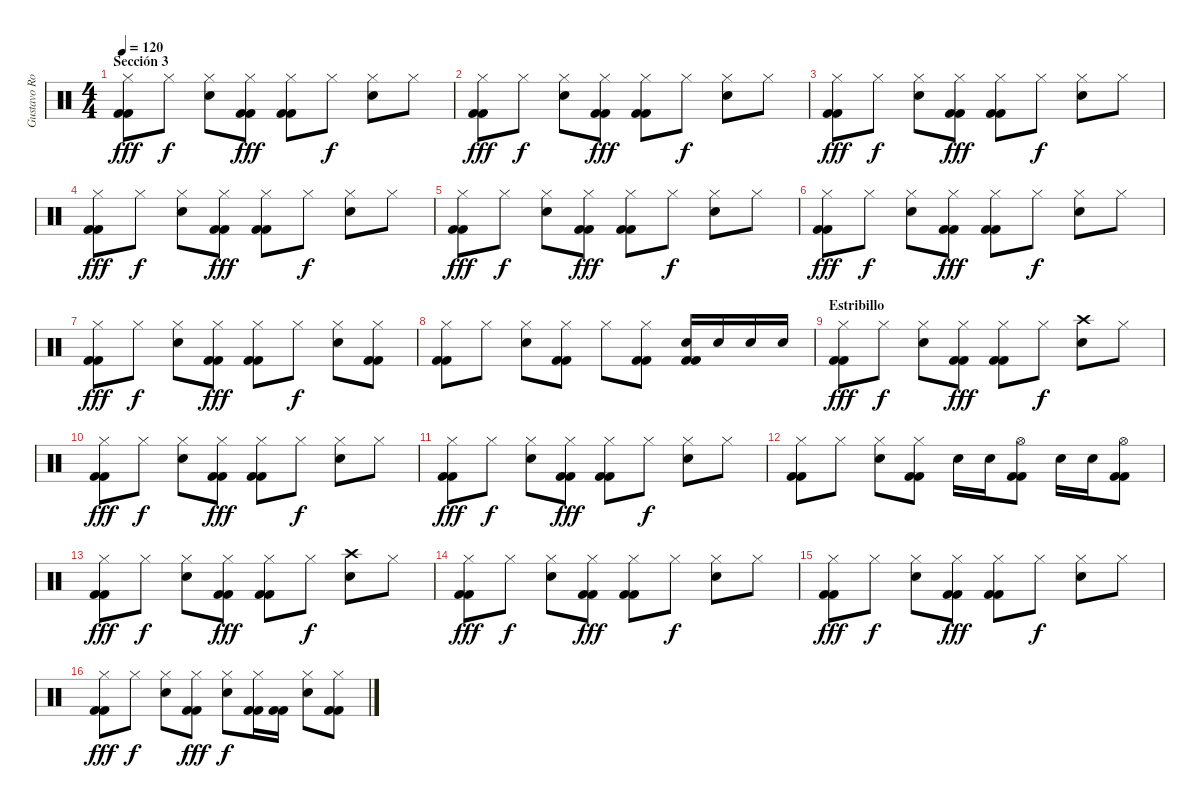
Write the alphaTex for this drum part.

\track ("Gustavo Rowek" "Gustavo Ro") {instrument percussion}
\staff {score}
\articulation defaults
\ts (4 4)
\section ("" "Sección 3")
\tempo 120
\clef neutral
\ks c
("Kick (hit) 2" "Kick (hit) 2" "Hi-Hat (closed)").8{dy fff} "Hi-Hat (closed)".8{dy f} ("Snare (hit) 2" "Hi-Hat (closed)").8 ("Kick (hit) 2" "Kick (hit) 2" "Hi-Hat (closed)").8{dy fff} ("Kick (hit) 2" "Kick (hit) 2" "Hi-Hat (closed)").8 "Hi-Hat (closed)".8{dy f} ("Snare (hit) 2" "Hi-Hat (closed)").8 "Hi-Hat (closed)".8 |
("Kick (hit) 2" "Kick (hit) 2" "Hi-Hat (closed)").8{dy fff} "Hi-Hat (closed)".8{dy f} ("Snare (hit) 2" "Hi-Hat (closed)").8 ("Kick (hit) 2" "Kick (hit) 2" "Hi-Hat (closed)").8{dy fff} ("Kick (hit) 2" "Kick (hit) 2" "Hi-Hat (closed)").8 "Hi-Hat (closed)".8{dy f} ("Snare (hit) 2" "Hi-Hat (closed)").8 "Hi-Hat (closed)".8 |
("Kick (hit) 2" "Kick (hit) 2" "Hi-Hat (closed)").8{dy fff} "Hi-Hat (closed)".8{dy f} ("Snare (hit) 2" "Hi-Hat (closed)").8 ("Kick (hit) 2" "Kick (hit) 2" "Hi-Hat (closed)").8{dy fff} ("Kick (hit) 2" "Kick (hit) 2" "Hi-Hat (closed)").8 "Hi-Hat (closed)".8{dy f} ("Snare (hit) 2" "Hi-Hat (closed)").8 "Hi-Hat (closed)".8 |
("Kick (hit) 2" "Kick (hit) 2" "Hi-Hat (closed)").8{dy fff} "Hi-Hat (closed)".8{dy f} ("Snare (hit) 2" "Hi-Hat (closed)").8 ("Kick (hit) 2" "Kick (hit) 2" "Hi-Hat (closed)").8{dy fff} ("Kick (hit) 2" "Kick (hit) 2" "Hi-Hat (closed)").8 "Hi-Hat (closed)".8{dy f} ("Snare (hit) 2" "Hi-Hat (closed)").8 "Hi-Hat (closed)".8 |
("Kick (hit) 2" "Kick (hit) 2" "Hi-Hat (closed)").8{dy fff} "Hi-Hat (closed)".8{dy f} ("Snare (hit) 2" "Hi-Hat (closed)").8 ("Kick (hit) 2" "Kick (hit) 2" "Hi-Hat (closed)").8{dy fff} ("Kick (hit) 2" "Kick (hit) 2" "Hi-Hat (closed)").8 "Hi-Hat (closed)".8{dy f} ("Snare (hit) 2" "Hi-Hat (closed)").8 "Hi-Hat (closed)".8 |
("Kick (hit) 2" "Kick (hit) 2" "Hi-Hat (closed)").8{dy fff} "Hi-Hat (closed)".8{dy f} ("Snare (hit) 2" "Hi-Hat (closed)").8 ("Kick (hit) 2" "Kick (hit) 2" "Hi-Hat (closed)").8{dy fff} ("Kick (hit) 2" "Kick (hit) 2" "Hi-Hat (closed)").8 "Hi-Hat (closed)".8{dy f} ("Snare (hit) 2" "Hi-Hat (closed)").8 "Hi-Hat (closed)".8 |
("Kick (hit) 2" "Kick (hit) 2" "Hi-Hat (closed)").8{dy fff} "Hi-Hat (closed)".8{dy f} ("Snare (hit) 2" "Hi-Hat (closed)").8 ("Kick (hit) 2" "Kick (hit) 2" "Hi-Hat (closed)").8{dy fff} ("Kick (hit) 2" "Kick (hit) 2" "Hi-Hat (closed)").8 "Hi-Hat (closed)".8{dy f} ("Snare (hit) 2" "Hi-Hat (closed)").8 ("Kick (hit) 2" "Kick (hit) 2" "Hi-Hat (closed)").8 |
("Kick (hit) 2" "Kick (hit) 2" "Hi-Hat (closed)").8 "Hi-Hat (closed)".8 ("Snare (hit) 2" "Hi-Hat (closed)").8 ("Kick (hit) 2" "Kick (hit) 2" "Hi-Hat (closed)").8 "Hi-Hat (closed)".8 ("Kick (hit) 2" "Kick (hit) 2" "Hi-Hat (closed)").8 ("Kick (hit) 2" "Kick (hit) 2" "Snare (hit) 2").16 "Snare (hit) 2".16 "Snare (hit) 2".16 "Snare (hit) 2".16 |
\section ("" "Estribillo")
("Kick (hit) 2" "Kick (hit) 2" "Hi-Hat (closed)").8{dy fff} "Hi-Hat (closed)".8{dy f} ("Snare (hit) 2" "Hi-Hat (closed)").8 ("Kick (hit) 2" "Kick (hit) 2" "Hi-Hat (closed)").8{dy fff} ("Kick (hit) 2" "Kick (hit) 2" "Hi-Hat (closed)").8 "Hi-Hat (closed)".8{dy f} ("Snare (hit) 2" "Crash high (hit)").8 "Hi-Hat (closed)".8 |
("Kick (hit) 2" "Kick (hit) 2" "Hi-Hat (closed)").8{dy fff} "Hi-Hat (closed)".8{dy f} ("Snare (hit) 2" "Hi-Hat (closed)").8 ("Kick (hit) 2" "Kick (hit) 2" "Hi-Hat (closed)").8{dy fff} ("Kick (hit) 2" "Kick (hit) 2" "Hi-Hat (closed)").8 "Hi-Hat (closed)".8{dy f} ("Snare (hit) 2" "Hi-Hat (closed)").8 "Hi-Hat (closed)".8 |
("Kick (hit) 2" "Kick (hit) 2" "Hi-Hat (closed)").8{dy fff} "Hi-Hat (closed)".8{dy f} ("Snare (hit) 2" "Hi-Hat (closed)").8 ("Kick (hit) 2" "Kick (hit) 2" "Hi-Hat (closed)").8{dy fff} ("Kick (hit) 2" "Kick (hit) 2" "Hi-Hat (closed)").8 "Hi-Hat (closed)".8{dy f} ("Snare (hit) 2" "Hi-Hat (closed)").8 "Hi-Hat (closed)".8 |
("Kick (hit) 2" "Kick (hit) 2" "Hi-Hat (closed)").8 "Hi-Hat (closed)".8 ("Snare (hit) 2" "Hi-Hat (closed)").8 ("Kick (hit) 2" "Kick (hit) 2" "Hi-Hat (closed)").8 "Snare (hit) 2".16 "Snare (hit) 2".16 ("Kick (hit) 2" "Kick (hit) 2" "Hi-Hat (open)").8 "Snare (hit) 2".16 "Snare (hit) 2".16 ("Kick (hit) 2" "Kick (hit) 2" "Hi-Hat (open)").8 |
("Kick (hit) 2" "Kick (hit) 2" "Hi-Hat (closed)").8{dy fff} "Hi-Hat (closed)".8{dy f} ("Snare (hit) 2" "Hi-Hat (closed)").8 ("Kick (hit) 2" "Kick (hit) 2" "Hi-Hat (closed)").8{dy fff} ("Kick (hit) 2" "Kick (hit) 2" "Hi-Hat (closed)").8 "Hi-Hat (closed)".8{dy f} ("Snare (hit) 2" "Crash high (hit)").8 "Hi-Hat (closed)".8 |
("Kick (hit) 2" "Kick (hit) 2" "Hi-Hat (closed)").8{dy fff} "Hi-Hat (closed)".8{dy f} ("Snare (hit) 2" "Hi-Hat (closed)").8 ("Kick (hit) 2" "Kick (hit) 2" "Hi-Hat (closed)").8{dy fff} ("Kick (hit) 2" "Kick (hit) 2" "Hi-Hat (closed)").8 "Hi-Hat (closed)".8{dy f} ("Snare (hit) 2" "Hi-Hat (closed)").8 "Hi-Hat (closed)".8 |
("Kick (hit) 2" "Kick (hit) 2" "Hi-Hat (closed)").8{dy fff} "Hi-Hat (closed)".8{dy f} ("Snare (hit) 2" "Hi-Hat (closed)").8 ("Kick (hit) 2" "Kick (hit) 2" "Hi-Hat (closed)").8{dy fff} ("Kick (hit) 2" "Kick (hit) 2" "Hi-Hat (closed)").8 "Hi-Hat (closed)".8{dy f} ("Snare (hit) 2" "Hi-Hat (closed)").8 "Hi-Hat (closed)".8 |
("Kick (hit) 2" "Kick (hit) 2" "Hi-Hat (closed)").8{dy fff} "Hi-Hat (closed)".8{dy f} ("Snare (hit) 2" "Hi-Hat (closed)").8 ("Kick (hit) 2" "Kick (hit) 2" "Hi-Hat (closed)").8{dy fff} ("Snare (hit) 2" "Hi-Hat (closed)").8{dy f} ("Kick (hit) 2" "Kick (hit) 2" "Hi-Hat (closed)").16 ("Kick (hit) 2" "Kick (hit) 2").16 ("Snare (hit) 2" "Hi-Hat (closed)").8 ("Kick (hit) 2" "Kick (hit) 2" "Hi-Hat (closed)").8
